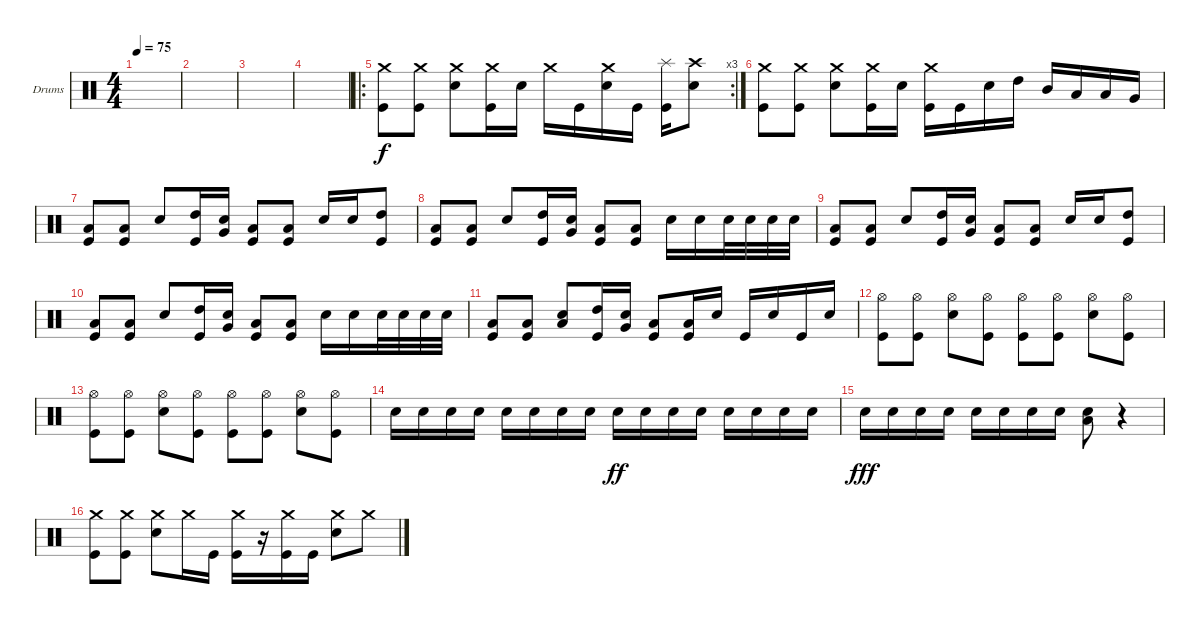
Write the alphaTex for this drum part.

\bracketExtendMode groupsimilarinstruments
\firstSystemTrackNameOrientation horizontal
\otherSystemsTrackNameOrientation horizontal
\track ("Drumkit" "Drums") {instrument percussion}
\staff {score}
\articulation defaults
\ts (4 4)
\tempo 75
\clef neutral
\ks c
|
|
|
|
\ro
\rc 3
("Kick (hit)" "Crash medium (hit)").8 ("Kick (hit)" "Crash medium (hit)").8 ("Snare (hit) 2" "Crash medium (hit)").8 ("Kick (hit)" "Crash medium (hit)").16 "Snare (hit) 2".16 "Crash medium (hit)".16 "Kick (hit)".16 ("Snare (hit) 2" "Crash medium (hit)").16 "Kick (hit)".16 ("Kick (hit)" "Splash (hit)").16 ("Snare (hit) 2" "Crash high (hit)").8 |
("Kick (hit)" "Crash medium (hit)").8 ("Kick (hit)" "Crash medium (hit)").8 ("Snare (hit) 2" "Crash medium (hit)").8 ("Kick (hit)" "Crash medium (hit)").16 "Snare (hit) 2".16 ("Crash medium (hit)" "Kick (hit)").16 "Kick (hit)".16 "Snare (hit) 2".16 "High Tom (hit)".16 "Mid Tom (hit)".16 "Low Tom (hit)".16 "Low Tom (hit)".16 "Very Low Tom (hit)".16 |
("Kick (hit)" "Low Tom (hit)").8 ("Kick (hit)" "Low Tom (hit)").8 "Snare (hit) 2".8 ("Kick (hit)" "High Tom (hit)").16 ("Snare (hit) 2" "Very Low Tom (hit)").16 ("Kick (hit)" "Low Tom (hit)").8 ("Kick (hit)" "Low Tom (hit)").8 "Snare (hit) 2".16 "Snare (hit) 2".16 ("Kick (hit)" "High Tom (hit)").8 |
("Kick (hit)" "Low Tom (hit)").8 ("Kick (hit)" "Low Tom (hit)").8 "Snare (hit) 2".8 ("Kick (hit)" "High Tom (hit)").16 ("Snare (hit) 2" "Very Low Tom (hit)").16 ("Kick (hit)" "Low Tom (hit)").8 ("Kick (hit)" "Low Tom (hit)").8 "Snare (hit) 2".16 "Snare (hit) 2".16 "Snare (hit) 2".32 "Snare (hit) 2".32 "Snare (hit) 2".32 "Snare (hit) 2".32 |
("Kick (hit)" "Low Tom (hit)").8 ("Kick (hit)" "Low Tom (hit)").8 "Snare (hit) 2".8 ("Kick (hit)" "High Tom (hit)").16 ("Snare (hit) 2" "Very Low Tom (hit)").16 ("Kick (hit)" "Low Tom (hit)").8 ("Kick (hit)" "Low Tom (hit)").8 "Snare (hit) 2".16 "Snare (hit) 2".16 ("Kick (hit)" "High Tom (hit)").8 |
("Kick (hit)" "Low Tom (hit)").8 ("Kick (hit)" "Low Tom (hit)").8 "Snare (hit) 2".8 ("Kick (hit)" "High Tom (hit)").16 ("Snare (hit) 2" "Very Low Tom (hit)").16 ("Kick (hit)" "Low Tom (hit)").8 ("Kick (hit)" "Low Tom (hit)").8 "Snare (hit) 2".16 "Snare (hit) 2".16 "Snare (hit) 2".32 "Snare (hit) 2".32 "Snare (hit) 2".32 "Snare (hit) 2".32 |
("Kick (hit)" "Low Tom (hit)").8 ("Kick (hit)" "Low Tom (hit)").8 ("Snare (hit) 2" "Low Tom (hit)").8 ("Kick (hit)" "High Tom (hit)").16 ("Snare (hit) 2" "Very Low Tom (hit)").16 ("Kick (hit)" "Low Tom (hit)").8 ("Kick (hit)" "Low Tom (hit)").16 "Snare (hit) 2".16 "Kick (hit)".16 "Snare (hit) 2".16 "Kick (hit)".16 "Snare (hit) 2".16 |
("Kick (hit)" "Hi-Hat (open)").8 ("Kick (hit)" "Hi-Hat (open)").8 ("Snare (hit) 2" "Hi-Hat (open)").8 ("Kick (hit)" "Hi-Hat (open)").8 ("Kick (hit)" "Hi-Hat (open)").8 ("Kick (hit)" "Hi-Hat (open)").8 ("Snare (hit) 2" "Hi-Hat (open)").8 ("Kick (hit)" "Hi-Hat (open)").8 |
("Kick (hit)" "Hi-Hat (open)").8 ("Kick (hit)" "Hi-Hat (open)").8 ("Snare (hit) 2" "Hi-Hat (open)").8 ("Kick (hit)" "Hi-Hat (open)").8 ("Kick (hit)" "Hi-Hat (open)").8 ("Kick (hit)" "Hi-Hat (open)").8 ("Snare (hit) 2" "Hi-Hat (open)").8 ("Kick (hit)" "Hi-Hat (open)").8 |
"Snare (hit) 2".16{dy f} "Snare (hit) 2".16 "Snare (hit) 2".16 "Snare (hit) 2".16 "Snare (hit) 2".16 "Snare (hit) 2".16 "Snare (hit) 2".16 "Snare (hit) 2".16 "Snare (hit) 2".16{dy ff} "Snare (hit) 2".16 "Snare (hit) 2".16 "Snare (hit) 2".16 "Snare (hit) 2".16 "Snare (hit) 2".16 "Snare (hit) 2".16 "Snare (hit) 2".16 |
"Snare (hit) 2".16{dy fff} "Snare (hit) 2".16 "Snare (hit) 2".16 "Snare (hit) 2".16 "Snare (hit) 2".16 "Snare (hit) 2".16 "Snare (hit) 2".16 "Snare (hit) 2".16 ("Snare (hit) 2" "Low Tom (hit)").8 r.4 |
("Kick (hit)" "Crash medium (hit)").8 ("Kick (hit)" "Crash medium (hit)").8 ("Snare (hit) 2" "Crash medium (hit)").8 "Crash medium (hit)".16 "Kick (hit)".16 ("Kick (hit)" "Crash medium (hit)").16 r.16 ("Kick (hit)" "Crash medium (hit)").16 "Kick (hit)".16 ("Snare (hit) 2" "Crash medium (hit)").8 "Crash medium (hit)".8
